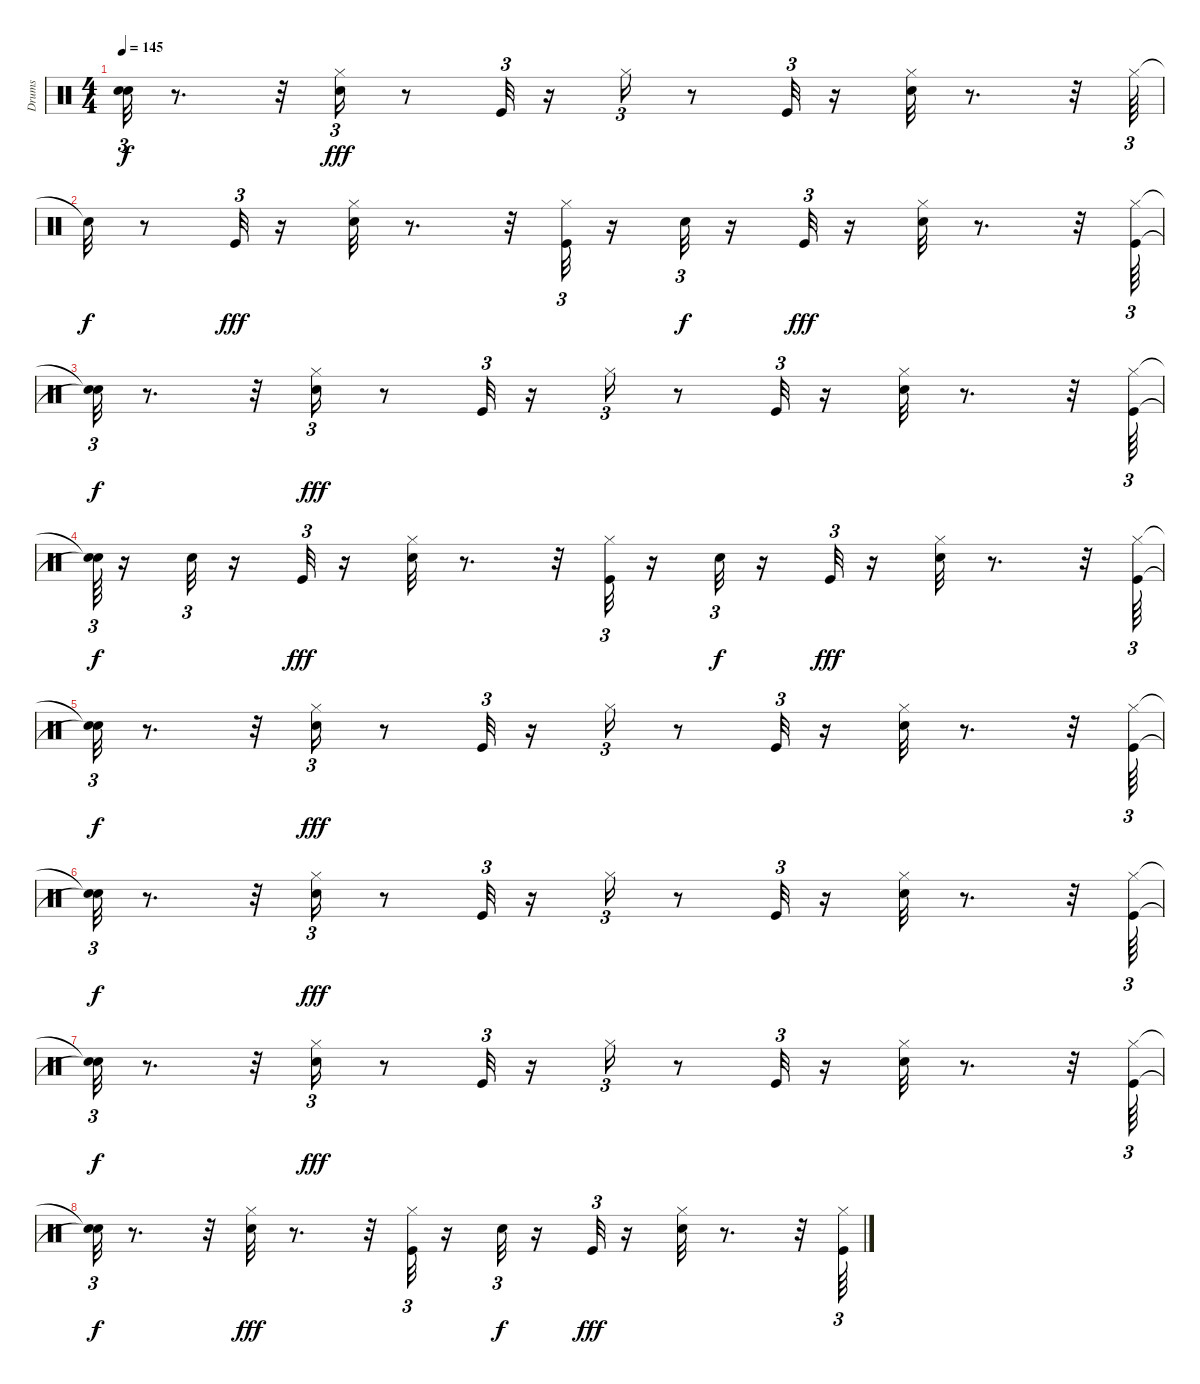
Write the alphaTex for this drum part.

\track ("Drums" "Drums") {instrument percussion}
\staff {score}
\articulation defaults
\ts (4 4)
\tempo 145
\clef neutral
\ks c
("Snare (hit)"{t} "Snare (hit)"{t}).32{tu (3 2) dy f} r.8{d} r.32 ("Electric Snare (hit)" "Hi-Hat (closed)").16{tu (3 2) dy fff} r.8 "Kick (hit)".32{tu (3 2)} r.16 "Hi-Hat (closed)".16{tu (3 2)} r.8 "Kick (hit)".32{tu (3 2)} r.16 ("Electric Snare (hit)" "Hi-Hat (closed)").32 r.8{d} r.32 "Hi-Hat (closed)".64{tu (3 2)} |
"Snare (hit)"{t}.32{dy f} r.8 "Kick (hit)".32{tu (3 2) dy fff} r.16 ("Electric Snare (hit)" "Hi-Hat (closed)").32 r.8{d} r.32 ("Kick (hit)" "Hi-Hat (closed)").32{tu (3 2)} r.16 "Electric Snare (hit)".32{tu (3 2) dy f} r.16 "Kick (hit)".32{tu (3 2) dy fff} r.16 ("Electric Snare (hit)" "Hi-Hat (closed)").32 r.8{d} r.32 ("Kick (hit)" "Hi-Hat (closed)").64{tu (3 2)} |
("Snare (hit)"{t} "Snare (hit)"{t}).32{tu (3 2) dy f} r.8{d} r.32 ("Electric Snare (hit)" "Hi-Hat (closed)").16{tu (3 2) dy fff} r.8 "Kick (hit)".32{tu (3 2)} r.16 "Hi-Hat (closed)".16{tu (3 2)} r.8 "Kick (hit)".32{tu (3 2)} r.16 ("Electric Snare (hit)" "Hi-Hat (closed)").32 r.8{d} r.32 ("Kick (hit)" "Hi-Hat (closed)").64{tu (3 2)} |
("Snare (hit)"{t} "Snare (hit)"{t}).64{tu (3 2) dy f} r.16 "Electric Snare (hit)".32{tu (3 2)} r.16 "Kick (hit)".32{tu (3 2) dy fff} r.16 ("Electric Snare (hit)" "Hi-Hat (closed)").32 r.8{d} r.32 ("Kick (hit)" "Hi-Hat (closed)").32{tu (3 2)} r.16 "Electric Snare (hit)".32{tu (3 2) dy f} r.16 "Kick (hit)".32{tu (3 2) dy fff} r.16 ("Electric Snare (hit)" "Hi-Hat (closed)").32 r.8{d} r.32 ("Kick (hit)" "Hi-Hat (closed)").64{tu (3 2)} |
("Snare (hit)"{t} "Snare (hit)"{t}).32{tu (3 2) dy f} r.8{d} r.32 ("Electric Snare (hit)" "Hi-Hat (closed)").16{tu (3 2) dy fff} r.8 "Kick (hit)".32{tu (3 2)} r.16 "Hi-Hat (closed)".16{tu (3 2)} r.8 "Kick (hit)".32{tu (3 2)} r.16 ("Electric Snare (hit)" "Hi-Hat (closed)").32 r.8{d} r.32 ("Kick (hit)" "Hi-Hat (closed)").64{tu (3 2)} |
("Snare (hit)"{t} "Snare (hit)"{t}).32{tu (3 2) dy f} r.8{d} r.32 ("Electric Snare (hit)" "Hi-Hat (closed)").16{tu (3 2) dy fff} r.8 "Kick (hit)".32{tu (3 2)} r.16 "Hi-Hat (closed)".16{tu (3 2)} r.8 "Kick (hit)".32{tu (3 2)} r.16 ("Electric Snare (hit)" "Hi-Hat (closed)").32 r.8{d} r.32 ("Kick (hit)" "Hi-Hat (closed)").64{tu (3 2)} |
("Snare (hit)"{t} "Snare (hit)"{t}).32{tu (3 2) dy f} r.8{d} r.32 ("Electric Snare (hit)" "Hi-Hat (closed)").16{tu (3 2) dy fff} r.8 "Kick (hit)".32{tu (3 2)} r.16 "Hi-Hat (closed)".16{tu (3 2)} r.8 "Kick (hit)".32{tu (3 2)} r.16 ("Electric Snare (hit)" "Hi-Hat (closed)").32 r.8{d} r.32 ("Kick (hit)" "Hi-Hat (closed)").64{tu (3 2)} |
("Snare (hit)"{t} "Snare (hit)"{t}).32{tu (3 2) dy f} r.8{d} r.32 ("Electric Snare (hit)" "Hi-Hat (closed)").32{dy fff} r.8{d} r.32 ("Kick (hit)" "Hi-Hat (closed)").32{tu (3 2)} r.16 "Electric Snare (hit)".32{tu (3 2) dy f} r.16 "Kick (hit)".32{tu (3 2) dy fff} r.16 ("Electric Snare (hit)" "Hi-Hat (closed)").32 r.8{d} r.32 ("Kick (hit)" "Hi-Hat (closed)").64{tu (3 2)}
